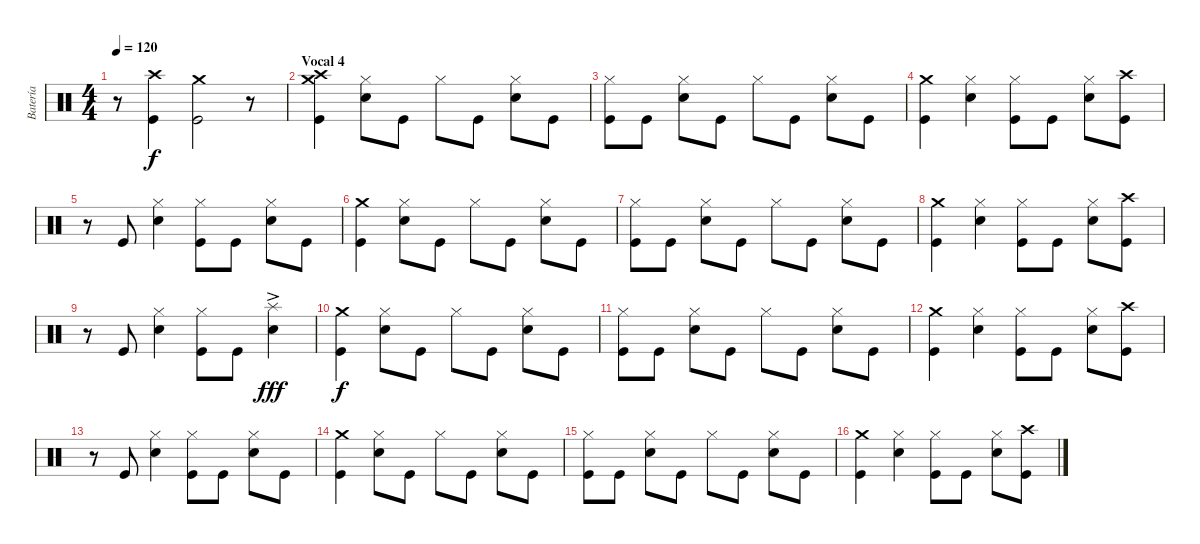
\track ("Batería" "Batería") {instrument percussion}
\staff {score}
\articulation defaults
\ts (4 4)
\tempo 120
\clef neutral
\ks c
r.8{dy f} ("Kick (hit)" "Crash high (hit)").4 ("Kick (hit)" "Crash medium (hit)").2 r.8 |
\section ("" "Vocal 4")
("Kick (hit)" "Crash medium (hit)" "Crash high (hit)").4 ("Electric Snare (hit)" "Hi-Hat (closed)").8 "Kick (hit)".8 "Hi-Hat (closed)".8 "Kick (hit)".8 ("Electric Snare (hit)" "Hi-Hat (closed)").8 "Kick (hit)".8 |
("Kick (hit)" "Hi-Hat (closed)").8 "Kick (hit)".8 ("Electric Snare (hit)" "Hi-Hat (closed)").8 "Kick (hit)".8 "Hi-Hat (closed)".8 "Kick (hit)".8 ("Electric Snare (hit)" "Hi-Hat (closed)").8 "Kick (hit)".8 |
("Kick (hit)" "Crash medium (hit)").4 ("Electric Snare (hit)" "Hi-Hat (closed)").4 ("Kick (hit)" "Hi-Hat (closed)").8 "Kick (hit)".8 ("Electric Snare (hit)" "Hi-Hat (closed)").8 ("Kick (hit)" "Crash high (hit)").8 |
r.8 "Kick (hit)".8 ("Electric Snare (hit)" "Hi-Hat (closed)").4 ("Kick (hit)" "Hi-Hat (closed)").8 "Kick (hit)".8 ("Electric Snare (hit)" "Hi-Hat (closed)").8 "Kick (hit)".8 |
("Kick (hit)" "Crash medium (hit)").4 ("Electric Snare (hit)" "Hi-Hat (closed)").8 "Kick (hit)".8 "Hi-Hat (closed)".8 "Kick (hit)".8 ("Electric Snare (hit)" "Hi-Hat (closed)").8 "Kick (hit)".8 |
("Kick (hit)" "Hi-Hat (closed)").8 "Kick (hit)".8 ("Electric Snare (hit)" "Hi-Hat (closed)").8 "Kick (hit)".8 "Hi-Hat (closed)".8 "Kick (hit)".8 ("Electric Snare (hit)" "Hi-Hat (closed)").8 "Kick (hit)".8 |
("Kick (hit)" "Crash medium (hit)").4 ("Electric Snare (hit)" "Hi-Hat (closed)").4 ("Kick (hit)" "Hi-Hat (closed)").8 "Kick (hit)".8 ("Electric Snare (hit)" "Hi-Hat (closed)").8 ("Kick (hit)" "Crash high (hit)").8 |
r.8 "Kick (hit)".8 ("Electric Snare (hit)" "Hi-Hat (closed)").4 ("Kick (hit)" "Hi-Hat (closed)").8 "Kick (hit)".8 ("Electric Snare (hit)" "Splash (hit)"{ac}).4{dy fff} |
("Kick (hit)" "Crash medium (hit)").4{dy f} ("Electric Snare (hit)" "Hi-Hat (closed)").8 "Kick (hit)".8 "Hi-Hat (closed)".8 "Kick (hit)".8 ("Electric Snare (hit)" "Hi-Hat (closed)").8 "Kick (hit)".8 |
("Kick (hit)" "Hi-Hat (closed)").8 "Kick (hit)".8 ("Electric Snare (hit)" "Hi-Hat (closed)").8 "Kick (hit)".8 "Hi-Hat (closed)".8 "Kick (hit)".8 ("Electric Snare (hit)" "Hi-Hat (closed)").8 "Kick (hit)".8 |
("Kick (hit)" "Crash medium (hit)").4 ("Electric Snare (hit)" "Hi-Hat (closed)").4 ("Kick (hit)" "Hi-Hat (closed)").8 "Kick (hit)".8 ("Electric Snare (hit)" "Hi-Hat (closed)").8 ("Kick (hit)" "Crash high (hit)").8 |
r.8 "Kick (hit)".8 ("Electric Snare (hit)" "Hi-Hat (closed)").4 ("Kick (hit)" "Hi-Hat (closed)").8 "Kick (hit)".8 ("Electric Snare (hit)" "Hi-Hat (closed)").8 "Kick (hit)".8 |
("Kick (hit)" "Crash medium (hit)").4 ("Electric Snare (hit)" "Hi-Hat (closed)").8 "Kick (hit)".8 "Hi-Hat (closed)".8 "Kick (hit)".8 ("Electric Snare (hit)" "Hi-Hat (closed)").8 "Kick (hit)".8 |
("Kick (hit)" "Hi-Hat (closed)").8 "Kick (hit)".8 ("Electric Snare (hit)" "Hi-Hat (closed)").8 "Kick (hit)".8 "Hi-Hat (closed)".8 "Kick (hit)".8 ("Electric Snare (hit)" "Hi-Hat (closed)").8 "Kick (hit)".8 |
("Kick (hit)" "Crash medium (hit)").4 ("Electric Snare (hit)" "Hi-Hat (closed)").4 ("Kick (hit)" "Hi-Hat (closed)").8 "Kick (hit)".8 ("Electric Snare (hit)" "Hi-Hat (closed)").8 ("Kick (hit)" "Crash high (hit)").8
